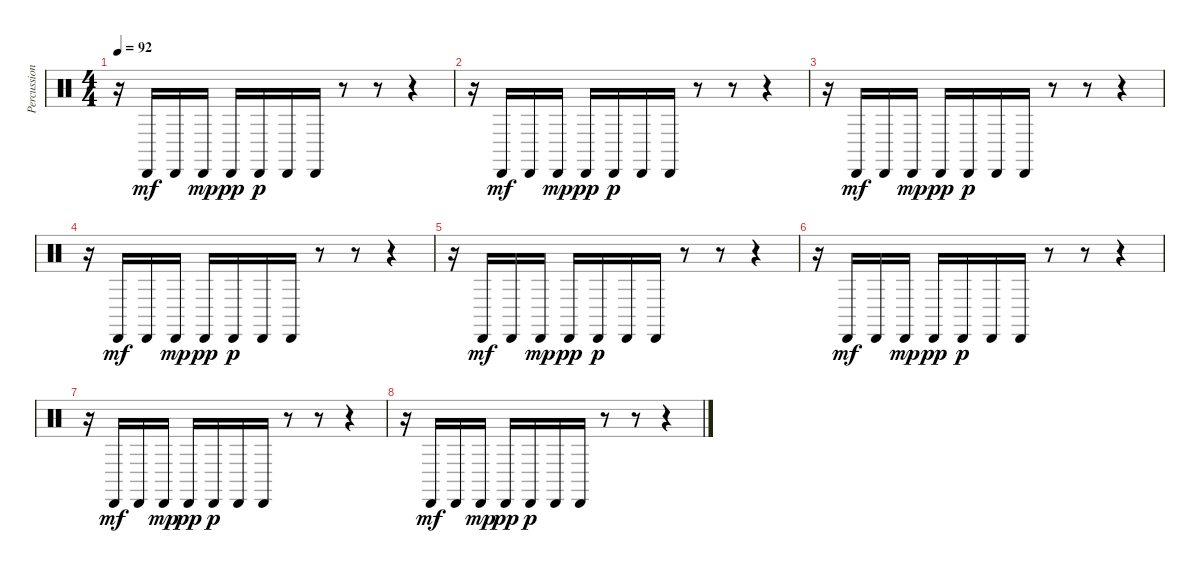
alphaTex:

\track ("Percussion" "Percussion") {instrument percussion}
\staff {score}
\articulation defaults
\ts (4 4)
\tempo 92
\clef neutral
\ks c
r.16{dy mf} "Cabasa (hit)".16 "Cabasa (hit)".16 "Cabasa (hit)".16{dy mp} "Cabasa (hit)".16{dy pp} "Cabasa (hit)".16{dy p} "Cabasa (hit)".16 "Cabasa (hit)".16 r.8 r.8 r.4 |
r.16 "Cabasa (hit)".16{dy mf} "Cabasa (hit)".16 "Cabasa (hit)".16{dy mp} "Cabasa (hit)".16{dy pp} "Cabasa (hit)".16{dy p} "Cabasa (hit)".16 "Cabasa (hit)".16 r.8 r.8 r.4 |
r.16 "Cabasa (hit)".16{dy mf} "Cabasa (hit)".16 "Cabasa (hit)".16{dy mp} "Cabasa (hit)".16{dy pp} "Cabasa (hit)".16{dy p} "Cabasa (hit)".16 "Cabasa (hit)".16 r.8 r.8 r.4 |
r.16 "Cabasa (hit)".16{dy mf} "Cabasa (hit)".16 "Cabasa (hit)".16{dy mp} "Cabasa (hit)".16{dy pp} "Cabasa (hit)".16{dy p} "Cabasa (hit)".16 "Cabasa (hit)".16 r.8 r.8 r.4 |
r.16 "Cabasa (hit)".16{dy mf} "Cabasa (hit)".16 "Cabasa (hit)".16{dy mp} "Cabasa (hit)".16{dy pp} "Cabasa (hit)".16{dy p} "Cabasa (hit)".16 "Cabasa (hit)".16 r.8 r.8 r.4 |
r.16 "Cabasa (hit)".16{dy mf} "Cabasa (hit)".16 "Cabasa (hit)".16{dy mp} "Cabasa (hit)".16{dy pp} "Cabasa (hit)".16{dy p} "Cabasa (hit)".16 "Cabasa (hit)".16 r.8 r.8 r.4 |
r.16 "Cabasa (hit)".16{dy mf} "Cabasa (hit)".16 "Cabasa (hit)".16{dy mp} "Cabasa (hit)".16{dy pp} "Cabasa (hit)".16{dy p} "Cabasa (hit)".16 "Cabasa (hit)".16 r.8 r.8 r.4 |
r.16 "Cabasa (hit)".16{dy mf} "Cabasa (hit)".16 "Cabasa (hit)".16{dy mp} "Cabasa (hit)".16{dy pp} "Cabasa (hit)".16{dy p} "Cabasa (hit)".16 "Cabasa (hit)".16 r.8 r.8 r.4
